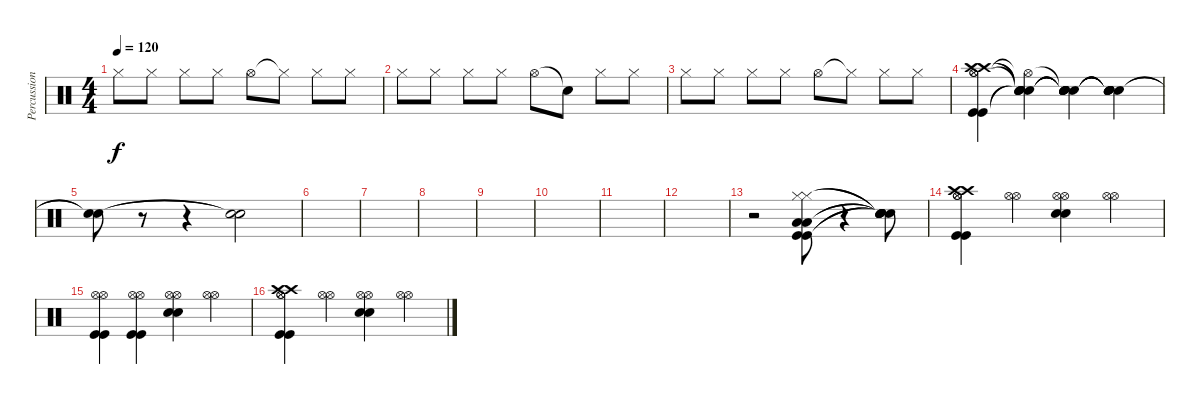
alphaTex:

\track ("Percussion" "Percussion") {instrument percussion}
\staff {score}
\articulation defaults
\ts (4 4)
\tempo 120
\clef neutral
\ks c "Hi-Hat (closed)".8{dy f} "Hi-Hat (closed)".8 "Hi-Hat (closed)".8 "Hi-Hat (closed)".8 "Hi-Hat (open)".8 "Hi-Hat (closed)"{t}.8 "Hi-Hat (closed)".8 "Hi-Hat (closed)".8
|
"Hi-Hat (closed)".8 "Hi-Hat (closed)".8 "Hi-Hat (closed)".8 "Hi-Hat (closed)".8 "Hi-Hat (open)".8 "Snare (hit)"{t}.8 "Hi-Hat (closed)".8 "Hi-Hat (closed)".8 |
"Hi-Hat (closed)".8 "Hi-Hat (closed)".8 "Hi-Hat (closed)".8 "Hi-Hat (closed)".8 "Hi-Hat (open)".8 "Hi-Hat (closed)"{t}.8 "Hi-Hat (closed)".8 "Hi-Hat (closed)".8 |
("Hi-Hat (open)" "Hi-Hat (open)" "Kick (hit)" "Kick (hit)" "Crash high (hit)" "Crash high (hit)").4 ("Hi-Hat (open)"{t} "Snare (hit)"{t} "Snare (hit)"{t} "Snare (hit)"{t} "Snare (hit)"{t} "Snare (hit)"{t}).4 ("Snare (hit)"{t} "Snare (hit)"{t} "Snare (hit)"{t} "Snare (hit)"{t} "Snare (hit)"{t} "Snare (hit)"{t}).4 ("Snare (hit)"{t} "Snare (hit)"{t} "Snare (hit)"{t} "Snare (hit)"{t} "Snare (hit)"{t} "Snare (hit)"{t}).4 |
("Snare (hit)"{t} "Snare (hit)"{t}).8 r.8 r.4 ("Snare (hit)"{t} "Snare (hit)"{t}).2 |
|
|
|
|
|
|
|
r.2 ("Hi-Hat (closed)" "Hi-Hat (closed)" "Kick (hit)" "Kick (hit)" "Low Floor Tom (hit)" "Low Floor Tom (hit)").8 r.4 ("Snare (hit)"{t} "Snare (hit)"{t} "Snare (hit)"{t} "Snare (hit)"{t} "Snare (hit)"{t} "Snare (hit)"{t}).8 |
("Hi-Hat (open)" "Hi-Hat (open)" "Kick (hit)" "Kick (hit)" "Crash high (hit)" "Crash high (hit)").4 ("Hi-Hat (open)" "Hi-Hat (open)").4 ("Hi-Hat (open)" "Hi-Hat (open)" "Electric Snare (hit)" "Electric Snare (hit)").4 ("Hi-Hat (open)" "Hi-Hat (open)").4 |
("Hi-Hat (open)" "Hi-Hat (open)" "Kick (hit)" "Kick (hit)").4 ("Hi-Hat (open)" "Hi-Hat (open)" "Kick (hit)" "Kick (hit)").4 ("Hi-Hat (open)" "Hi-Hat (open)" "Electric Snare (hit)" "Electric Snare (hit)").4 ("Hi-Hat (open)" "Hi-Hat (open)").4 |
("Hi-Hat (open)" "Hi-Hat (open)" "Kick (hit)" "Kick (hit)" "Crash high (hit)" "Crash high (hit)").4 ("Hi-Hat (open)" "Hi-Hat (open)").4 ("Hi-Hat (open)" "Hi-Hat (open)" "Electric Snare (hit)" "Electric Snare (hit)").4 ("Hi-Hat (open)" "Hi-Hat (open)").4
